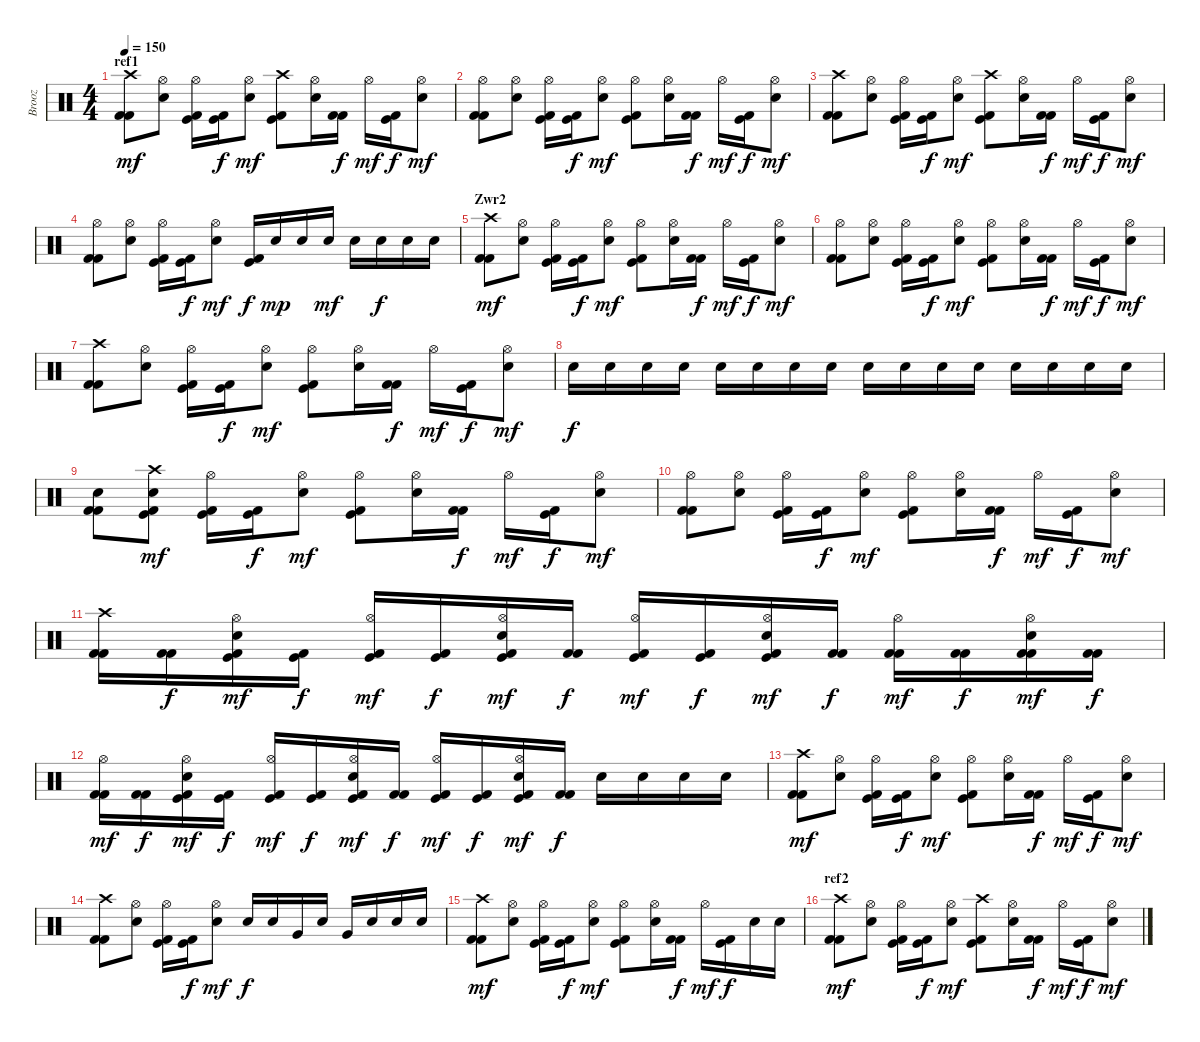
\track ("Brooz" "Brooz") {instrument percussion}
\staff {score}
\articulation defaults
\ts (4 4)
\section ("" "ref1")
\tempo 150
\clef neutral
\ks c
("Crash high (hit)" "Kick (hit) 2" "Kick (hit) 2").8{dy mf} ("Hi-Hat (open)" "Snare (hit) 2").8 ("Hi-Hat (open)" "Kick (hit) 2" "Kick (hit)").16 ("Kick (hit) 2" "Kick (hit)").16{dy f} ("Hi-Hat (open)" "Snare (hit) 2").8{dy mf} ("Crash high (hit)" "Kick (hit) 2" "Kick (hit)").8 ("Hi-Hat (open)" "Snare (hit) 2").16 ("Kick (hit) 2" "Kick (hit) 2").16{dy f} "Hi-Hat (open)".16{dy mf} ("Kick (hit) 2" "Kick (hit)").16{dy f} ("Hi-Hat (open)" "Snare (hit) 2").8{dy mf} |
("Hi-Hat (open)" "Kick (hit) 2" "Kick (hit) 2").8 ("Hi-Hat (open)" "Snare (hit) 2").8 ("Hi-Hat (open)" "Kick (hit) 2" "Kick (hit)").16 ("Kick (hit) 2" "Kick (hit)").16{dy f} ("Hi-Hat (open)" "Snare (hit) 2").8{dy mf} ("Hi-Hat (open)" "Kick (hit) 2" "Kick (hit)").8 ("Hi-Hat (open)" "Snare (hit) 2").16 ("Kick (hit) 2" "Kick (hit) 2").16{dy f} "Hi-Hat (open)".16{dy mf} ("Kick (hit) 2" "Kick (hit)").16{dy f} ("Hi-Hat (open)" "Snare (hit) 2").8{dy mf} |
("Crash high (hit)" "Kick (hit) 2" "Kick (hit) 2").8 ("Hi-Hat (open)" "Snare (hit) 2").8 ("Hi-Hat (open)" "Kick (hit) 2" "Kick (hit)").16 ("Kick (hit) 2" "Kick (hit)").16{dy f} ("Hi-Hat (open)" "Snare (hit) 2").8{dy mf} ("Crash high (hit)" "Kick (hit) 2" "Kick (hit)").8 ("Hi-Hat (open)" "Snare (hit) 2").16 ("Kick (hit) 2" "Kick (hit) 2").16{dy f} "Hi-Hat (open)".16{dy mf} ("Kick (hit) 2" "Kick (hit)").16{dy f} ("Hi-Hat (open)" "Snare (hit) 2").8{dy mf} |
("Hi-Hat (open)" "Kick (hit) 2" "Kick (hit) 2").8 ("Hi-Hat (open)" "Snare (hit) 2").8 ("Hi-Hat (open)" "Kick (hit) 2" "Kick (hit)").16 ("Kick (hit) 2" "Kick (hit)").16{dy f} ("Hi-Hat (open)" "Snare (hit) 2").8{dy mf} ("Kick (hit) 2" "Kick (hit)").16{dy f} "Snare (hit) 2".16{dy mp} "Snare (hit) 2".16 "Snare (hit) 2".16{dy mf} "Snare (hit) 2".16 "Snare (hit) 2".16{dy f} "Snare (hit) 2".16 "Snare (hit) 2".16 |
\section ("" "Zwr2")
("Crash high (hit)" "Kick (hit) 2" "Kick (hit) 2").8{dy mf} ("Hi-Hat (open)" "Snare (hit) 2").8 ("Hi-Hat (open)" "Kick (hit) 2" "Kick (hit)").16 ("Kick (hit) 2" "Kick (hit)").16{dy f} ("Hi-Hat (open)" "Snare (hit) 2").8{dy mf} ("Hi-Hat (open)" "Kick (hit) 2" "Kick (hit)").8 ("Hi-Hat (open)" "Snare (hit) 2").16 ("Kick (hit) 2" "Kick (hit) 2").16{dy f} "Hi-Hat (open)".16{dy mf} ("Kick (hit) 2" "Kick (hit)").16{dy f} ("Hi-Hat (open)" "Snare (hit) 2").8{dy mf} |
("Hi-Hat (open)" "Kick (hit) 2" "Kick (hit) 2").8 ("Hi-Hat (open)" "Snare (hit) 2").8 ("Hi-Hat (open)" "Kick (hit) 2" "Kick (hit)").16 ("Kick (hit) 2" "Kick (hit)").16{dy f} ("Hi-Hat (open)" "Snare (hit) 2").8{dy mf} ("Hi-Hat (open)" "Kick (hit) 2" "Kick (hit)").8 ("Hi-Hat (open)" "Snare (hit) 2").16 ("Kick (hit) 2" "Kick (hit) 2").16{dy f} "Hi-Hat (open)".16{dy mf} ("Kick (hit) 2" "Kick (hit)").16{dy f} ("Hi-Hat (open)" "Snare (hit) 2").8{dy mf} |
("Crash high (hit)" "Kick (hit) 2" "Kick (hit) 2").8 ("Hi-Hat (open)" "Snare (hit) 2").8 ("Hi-Hat (open)" "Kick (hit) 2" "Kick (hit)").16 ("Kick (hit) 2" "Kick (hit)").16{dy f} ("Hi-Hat (open)" "Snare (hit) 2").8{dy mf} ("Hi-Hat (open)" "Kick (hit) 2" "Kick (hit)").8 ("Hi-Hat (open)" "Snare (hit) 2").16 ("Kick (hit) 2" "Kick (hit) 2").16{dy f} "Hi-Hat (open)".16{dy mf} ("Kick (hit) 2" "Kick (hit)").16{dy f} ("Hi-Hat (open)" "Snare (hit) 2").8{dy mf} |
"Snare (hit) 2".16{dy f} "Snare (hit) 2".16 "Snare (hit) 2".16 "Snare (hit) 2".16 "Snare (hit) 2".16 "Snare (hit) 2".16 "Snare (hit) 2".16 "Snare (hit) 2".16 "Snare (hit) 2".16 "Snare (hit) 2".16 "Snare (hit) 2".16 "Snare (hit) 2".16 "Snare (hit) 2".16 "Snare (hit) 2".16 "Snare (hit) 2".16 "Snare (hit) 2".16 |
("Snare (hit) 2" "Kick (hit) 2" "Kick (hit) 2").8 ("Crash high (hit)" "Snare (hit) 2" "Kick (hit) 2" "Kick (hit)").8{dy mf} ("Hi-Hat (open)" "Kick (hit) 2" "Kick (hit)").16 ("Kick (hit) 2" "Kick (hit)").16{dy f} ("Hi-Hat (open)" "Snare (hit) 2").8{dy mf} ("Hi-Hat (open)" "Kick (hit) 2" "Kick (hit)").8 ("Hi-Hat (open)" "Snare (hit) 2").16 ("Kick (hit) 2" "Kick (hit) 2").16{dy f} "Hi-Hat (open)".16{dy mf} ("Kick (hit) 2" "Kick (hit)").16{dy f} ("Hi-Hat (open)" "Snare (hit) 2").8{dy mf} |
("Hi-Hat (open)" "Kick (hit) 2" "Kick (hit) 2").8 ("Hi-Hat (open)" "Snare (hit) 2").8 ("Hi-Hat (open)" "Kick (hit) 2" "Kick (hit)").16 ("Kick (hit) 2" "Kick (hit)").16{dy f} ("Hi-Hat (open)" "Snare (hit) 2").8{dy mf} ("Hi-Hat (open)" "Kick (hit) 2" "Kick (hit)").8 ("Hi-Hat (open)" "Snare (hit) 2").16 ("Kick (hit) 2" "Kick (hit) 2").16{dy f} "Hi-Hat (open)".16{dy mf} ("Kick (hit) 2" "Kick (hit)").16{dy f} ("Hi-Hat (open)" "Snare (hit) 2").8{dy mf} |
("Crash high (hit)" "Kick (hit) 2" "Kick (hit) 2").16 ("Kick (hit) 2" "Kick (hit) 2").16{dy f} ("Hi-Hat (open)" "Snare (hit) 2" "Kick (hit) 2" "Kick (hit)").16{dy mf} ("Kick (hit) 2" "Kick (hit)").16{dy f} ("Hi-Hat (open)" "Kick (hit) 2" "Kick (hit)").16{dy mf} ("Kick (hit) 2" "Kick (hit)").16{dy f} ("Hi-Hat (open)" "Snare (hit) 2" "Kick (hit) 2" "Kick (hit)").16{dy mf} ("Kick (hit) 2" "Kick (hit) 2").16{dy f} ("Hi-Hat (open)" "Kick (hit) 2" "Kick (hit)").16{dy mf} ("Kick (hit) 2" "Kick (hit)").16{dy f} ("Hi-Hat (open)" "Snare (hit) 2" "Kick (hit) 2" "Kick (hit)").16{dy mf} ("Kick (hit) 2" "Kick (hit) 2").16{dy f} ("Hi-Hat (open)" "Kick (hit) 2" "Kick (hit) 2").16{dy mf} ("Kick (hit) 2" "Kick (hit) 2").16{dy f} ("Hi-Hat (open)" "Snare (hit) 2" "Kick (hit) 2" "Kick (hit) 2").16{dy mf} ("Kick (hit) 2" "Kick (hit) 2").16{dy f} |
("Hi-Hat (open)" "Kick (hit) 2" "Kick (hit) 2").16{dy mf} ("Kick (hit) 2" "Kick (hit) 2").16{dy f} ("Hi-Hat (open)" "Snare (hit) 2" "Kick (hit) 2" "Kick (hit)").16{dy mf} ("Kick (hit) 2" "Kick (hit)").16{dy f} ("Hi-Hat (open)" "Kick (hit) 2" "Kick (hit)").16{dy mf} ("Kick (hit) 2" "Kick (hit)").16{dy f} ("Hi-Hat (open)" "Snare (hit) 2" "Kick (hit) 2" "Kick (hit)").16{dy mf} ("Kick (hit) 2" "Kick (hit) 2").16{dy f} ("Hi-Hat (open)" "Kick (hit) 2" "Kick (hit)").16{dy mf} ("Kick (hit) 2" "Kick (hit)").16{dy f} ("Hi-Hat (open)" "Snare (hit) 2" "Kick (hit) 2" "Kick (hit)").16{dy mf} ("Kick (hit) 2" "Kick (hit) 2").16{dy f} "Snare (hit) 2".16 "Snare (hit) 2".16 "Snare (hit) 2".16 "Snare (hit) 2".16 |
("Crash high (hit)" "Kick (hit) 2" "Kick (hit) 2").8{dy mf} ("Hi-Hat (open)" "Snare (hit) 2").8 ("Hi-Hat (open)" "Kick (hit) 2" "Kick (hit)").16 ("Kick (hit) 2" "Kick (hit)").16{dy f} ("Hi-Hat (open)" "Snare (hit) 2").8{dy mf} ("Hi-Hat (open)" "Kick (hit) 2" "Kick (hit)").8 ("Hi-Hat (open)" "Snare (hit) 2").16 ("Kick (hit) 2" "Kick (hit) 2").16{dy f} "Hi-Hat (open)".16{dy mf} ("Kick (hit) 2" "Kick (hit)").16{dy f} ("Hi-Hat (open)" "Snare (hit) 2").8{dy mf} |
("Crash high (hit)" "Kick (hit) 2" "Kick (hit) 2").8 ("Hi-Hat (open)" "Snare (hit) 2").8 ("Hi-Hat (open)" "Kick (hit) 2" "Kick (hit)").16 ("Kick (hit) 2" "Kick (hit)").16{dy f} ("Hi-Hat (open)" "Snare (hit) 2").8{dy mf} "Snare (hit) 2".16{dy f} "Snare (hit) 2".16 "Very Low Tom (hit)".16 "Snare (hit) 2".16 "Very Low Tom (hit)".16 "Snare (hit) 2".16 "Snare (hit) 2".16 "Snare (hit) 2".16 |
("Crash high (hit)" "Kick (hit) 2" "Kick (hit) 2").8{dy mf} ("Hi-Hat (open)" "Snare (hit) 2").8 ("Hi-Hat (open)" "Kick (hit) 2" "Kick (hit)").16 ("Kick (hit) 2" "Kick (hit)").16{dy f} ("Hi-Hat (open)" "Snare (hit) 2").8{dy mf} ("Hi-Hat (open)" "Kick (hit) 2" "Kick (hit)").8 ("Hi-Hat (open)" "Snare (hit) 2").16 ("Kick (hit) 2" "Kick (hit) 2").16{dy f} "Hi-Hat (open)".16{dy mf} ("Kick (hit) 2" "Kick (hit)").16{dy f} "Snare (hit) 2".16 "Snare (hit) 2".16 |
\section ("" "ref2")
("Crash high (hit)" "Kick (hit) 2" "Kick (hit) 2").8{dy mf} ("Hi-Hat (open)" "Snare (hit) 2").8 ("Hi-Hat (open)" "Kick (hit) 2" "Kick (hit)").16 ("Kick (hit) 2" "Kick (hit)").16{dy f} ("Hi-Hat (open)" "Snare (hit) 2").8{dy mf} ("Crash high (hit)" "Kick (hit) 2" "Kick (hit)").8 ("Hi-Hat (open)" "Snare (hit) 2").16 ("Kick (hit) 2" "Kick (hit) 2").16{dy f} "Hi-Hat (open)".16{dy mf} ("Kick (hit) 2" "Kick (hit)").16{dy f} ("Hi-Hat (open)" "Snare (hit) 2").8{dy mf}
